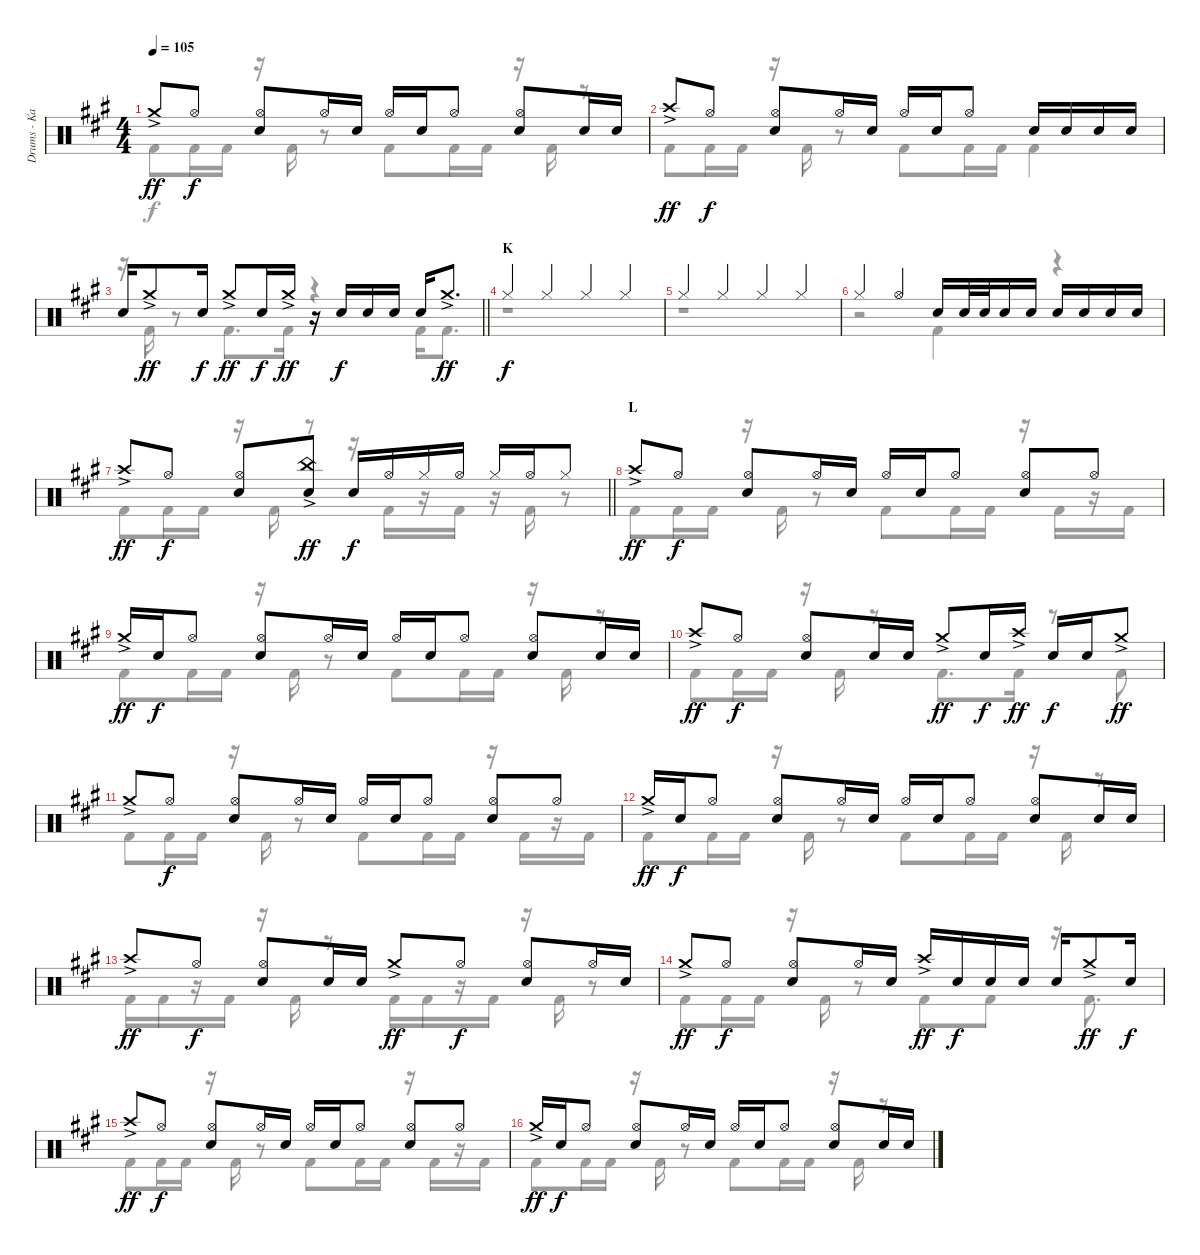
\track ("Drums - Kai" "Drums - Ka") {instrument percussion}
\staff {score}
\articulation defaults
\voice
\ts (4 4)
\tempo 105
\clef neutral
\ks a "Crash medium (hit)"{ac}.8{dy ff} "Hi-Hat (open)".8{dy f}
("Hi-Hat (open)" "Electric Snare (hit)").8 "Hi-Hat (open)".16 "Electric Snare (hit)".16 "Hi-Hat (open)".16 "Electric Snare (hit)".16 "Hi-Hat (open)".8 ("Hi-Hat (open)" "Electric Snare (hit)").8 "Electric Snare (hit)".16 "Electric Snare (hit)".16 |
"Crash high (hit)"{ac}.8{dy ff} "Hi-Hat (open)".8{dy f} ("Hi-Hat (open)" "Electric Snare (hit)").8 "Hi-Hat (open)".16 "Electric Snare (hit)".16 "Hi-Hat (open)".16 "Electric Snare (hit)".16 "Hi-Hat (open)".8 "Electric Snare (hit)".16 "Electric Snare (hit)".16 "Electric Snare (hit)".16 "Electric Snare (hit)".16 |
\barLineRight lightlight "Electric Snare (hit)".16 "Crash medium (hit)"{ac}.8{dy ff} "Electric Snare (hit)".16{dy f} "Crash medium (hit)"{ac}.8{dy ff} "Electric Snare (hit)".16{dy f} "Crash medium (hit)"{ac}.16{dy ff}
r.16 "Electric Snare (hit)".16{dy f} "Electric Snare (hit)".16 "Electric Snare (hit)".16 "Electric Snare (hit)".16 "Crash medium (hit)"{ac}.8{d dy ff} |
\section ("" "K")
"Hi-Hat (closed)".4{dy f} "Hi-Hat (closed)".4 "Hi-Hat (closed)".4 "Hi-Hat (closed)".4 |
"Hi-Hat (closed)".4 "Hi-Hat (closed)".4 "Hi-Hat (closed)".4 "Hi-Hat (closed)".4 |
"Hi-Hat (closed)".4 "Hi-Hat (open)".4 "Electric Snare (hit)".16 "Electric Snare (hit)".32 "Electric Snare (hit)".32 "Electric Snare (hit)".16 "Electric Snare (hit)".16 "Electric Snare (hit)".16 "Electric Snare (hit)".16 "Electric Snare (hit)".16 "Electric Snare (hit)".16 |
\barLineRight lightlight "Crash high (hit)"{ac}.8{dy ff} "Hi-Hat (open)".8{dy f}
("Hi-Hat (open)" "Electric Snare (hit)").8 ("China (hit)"{ac} "Electric Snare (hit)").8{dy ff} "Electric Snare (hit)".16{dy f} "Hi-Hat (open)".16 "Hi-Hat (closed)".16 "Hi-Hat (open)".16 "Hi-Hat (closed)".16 "Hi-Hat (open)".16 "Hi-Hat (closed)".8 |
\section ("" "L")
"Crash high (hit)"{ac}.8{dy ff} "Hi-Hat (open)".8{dy f} ("Hi-Hat (open)" "Electric Snare (hit)").8 "Hi-Hat (open)".16 "Electric Snare (hit)".16 "Hi-Hat (open)".16 "Electric Snare (hit)".16 "Hi-Hat (open)".8 ("Hi-Hat (open)" "Electric Snare (hit)").8 "Hi-Hat (open)".8 |
"Crash medium (hit)"{ac}.16{dy ff} "Electric Snare (hit)".16{dy f} "Hi-Hat (open)".8 ("Hi-Hat (open)" "Electric Snare (hit)").8 "Hi-Hat (open)".16 "Electric Snare (hit)".16 "Hi-Hat (open)".16 "Electric Snare (hit)".16 "Hi-Hat (open)".8 ("Hi-Hat (open)" "Electric Snare (hit)").8 "Electric Snare (hit)".16 "Electric Snare (hit)".16 |
"Crash high (hit)"{ac}.8{dy ff} "Hi-Hat (open)".8{dy f} ("Hi-Hat (open)" "Electric Snare (hit)").8 "Electric Snare (hit)".16 "Electric Snare (hit)".16 "Crash medium (hit)"{ac}.8{dy ff} "Electric Snare (hit)".16{dy f} "Crash high (hit)"{ac}.16{dy ff} "Electric Snare (hit)".16{dy f} "Electric Snare (hit)".16 "Crash medium (hit)"{ac}.8{dy ff} |
"Crash medium (hit)"{ac}.8 "Hi-Hat (open)".8{dy f} ("Hi-Hat (open)" "Electric Snare (hit)").8 "Hi-Hat (open)".16 "Electric Snare (hit)".16 "Hi-Hat (open)".16 "Electric Snare (hit)".16 "Hi-Hat (open)".8 ("Hi-Hat (open)" "Electric Snare (hit)").8 "Hi-Hat (open)".8 |
"Crash medium (hit)"{ac}.16{dy ff} "Electric Snare (hit)".16{dy f} "Hi-Hat (open)".8 ("Hi-Hat (open)" "Electric Snare (hit)").8 "Hi-Hat (open)".16 "Electric Snare (hit)".16 "Hi-Hat (open)".16 "Electric Snare (hit)".16 "Hi-Hat (open)".8 ("Hi-Hat (open)" "Electric Snare (hit)").8 "Electric Snare (hit)".16 "Electric Snare (hit)".16 |
"Crash high (hit)"{ac}.8{dy ff} "Hi-Hat (open)".8{dy f} ("Hi-Hat (open)" "Electric Snare (hit)").8 "Electric Snare (hit)".16 "Electric Snare (hit)".16 "Crash medium (hit)"{ac}.8{dy ff} "Hi-Hat (open)".8{dy f} ("Hi-Hat (open)" "Electric Snare (hit)").8 "Hi-Hat (open)".16 "Electric Snare (hit)".16 |
"Crash medium (hit)"{ac}.8{dy ff} "Hi-Hat (open)".8{dy f} ("Hi-Hat (open)" "Electric Snare (hit)").8 "Hi-Hat (open)".16 "Electric Snare (hit)".16 "Crash high (hit)"{ac}.16{dy ff} "Electric Snare (hit)".16{dy f} "Electric Snare (hit)".16 "Electric Snare (hit)".16 "Electric Snare (hit)".16 "Crash medium (hit)"{ac}.8{dy ff} "Electric Snare (hit)".16{dy f} |
"Crash high (hit)"{ac}.8{dy ff} "Hi-Hat (open)".8{dy f} ("Hi-Hat (open)" "Electric Snare (hit)").8 "Hi-Hat (open)".16 "Electric Snare (hit)".16 "Hi-Hat (open)".16 "Electric Snare (hit)".16 "Hi-Hat (open)".8 ("Hi-Hat (open)" "Electric Snare (hit)").8 "Hi-Hat (open)".8 |
"Crash medium (hit)"{ac}.16{dy ff} "Electric Snare (hit)".16{dy f} "Hi-Hat (open)".8 ("Hi-Hat (open)" "Electric Snare (hit)").8 "Hi-Hat (open)".16 "Electric Snare (hit)".16 "Hi-Hat (open)".16 "Electric Snare (hit)".16 "Hi-Hat (open)".8 ("Hi-Hat (open)" "Electric Snare (hit)").8 "Electric Snare (hit)".16 "Electric Snare (hit)".16
\voice
\clef neutral
\ottava regular
\simile none
\ks a "Kick (hit) 2".8{dy f} "Kick (hit) 2".16 "Kick (hit) 2".16
r.16 "Kick (hit) 2".16 r.8 "Kick (hit) 2".8 "Kick (hit) 2".16 "Kick (hit) 2".16 r.16 "Kick (hit) 2".16 r.8 |
"Kick (hit) 2".8 "Kick (hit) 2".16 "Kick (hit) 2".16 r.16 "Kick (hit) 2".16 r.8 "Kick (hit) 2".8 "Kick (hit) 2".16 "Kick (hit) 2".16 "Kick (hit) 2".4 |
\barLineRight lightlight
r.16 "Kick (hit) 2".16 r.8 "Kick (hit) 2".8{d} "Kick (hit) 2".16 r.4 "Kick (hit) 2".16 "Kick (hit) 2".8{d} |
r.1 |
r.1 |
r.2 "Kick (hit) 2".4 r.4 |
\barLineRight lightlight "Kick (hit) 2".8 "Kick (hit) 2".16 "Kick (hit) 2".16
r.16 "Kick (hit) 2".16 r.8 r.16 "Kick (hit) 2".16 r.16 "Kick (hit) 2".16 r.16 "Kick (hit) 2".16 r.8 |
"Kick (hit) 2".8 "Kick (hit) 2".16 "Kick (hit) 2".16 r.16 "Kick (hit) 2".16 r.8 "Kick (hit) 2".8 "Kick (hit) 2".16 "Kick (hit) 2".16 r.16 "Kick (hit) 2".16 r.16 "Kick (hit) 2".16 |
"Kick (hit) 2".8 "Kick (hit) 2".16 "Kick (hit) 2".16 r.16 "Kick (hit) 2".16 r.8 "Kick (hit) 2".8 "Kick (hit) 2".16 "Kick (hit) 2".16 r.16 "Kick (hit) 2".16 r.8 |
"Kick (hit) 2".8 "Kick (hit) 2".16 "Kick (hit) 2".16 r.16 "Kick (hit) 2".16 r.8 "Kick (hit) 2".8{d} "Kick (hit) 2".16 r.8 "Kick (hit) 2".8 |
"Kick (hit) 2".8 "Kick (hit) 2".16 "Kick (hit) 2".16 r.16 "Kick (hit) 2".16 r.8 "Kick (hit) 2".8 "Kick (hit) 2".16 "Kick (hit) 2".16 r.16 "Kick (hit) 2".16 r.16 "Kick (hit) 2".16 |
"Kick (hit) 2".8 "Kick (hit) 2".16 "Kick (hit) 2".16 r.16 "Kick (hit) 2".16 r.8 "Kick (hit) 2".8 "Kick (hit) 2".16 "Kick (hit) 2".16 r.16 "Kick (hit) 2".16 r.8 |
"Kick (hit) 2".16 "Kick (hit) 2".16 r.16 "Kick (hit) 2".16 r.16 "Kick (hit) 2".16 r.8 "Kick (hit) 2".16 "Kick (hit) 2".16 r.16 "Kick (hit) 2".16 r.16 "Kick (hit) 2".16 r.8 |
"Kick (hit) 2".8 "Kick (hit) 2".16 "Kick (hit) 2".16 r.16 "Kick (hit) 2".16 r.8 "Kick (hit) 2".8 "Kick (hit) 2".8 r.16 "Kick (hit) 2".8{d} |
"Kick (hit) 2".8 "Kick (hit) 2".16 "Kick (hit) 2".16 r.16 "Kick (hit) 2".16 r.8 "Kick (hit) 2".8 "Kick (hit) 2".16 "Kick (hit) 2".16 r.16 "Kick (hit) 2".16 r.16 "Kick (hit) 2".16 |
"Kick (hit) 2".8 "Kick (hit) 2".16 "Kick (hit) 2".16 r.16 "Kick (hit) 2".16 r.8 "Kick (hit) 2".8 "Kick (hit) 2".16 "Kick (hit) 2".16 r.16 "Kick (hit) 2".16 r.8
